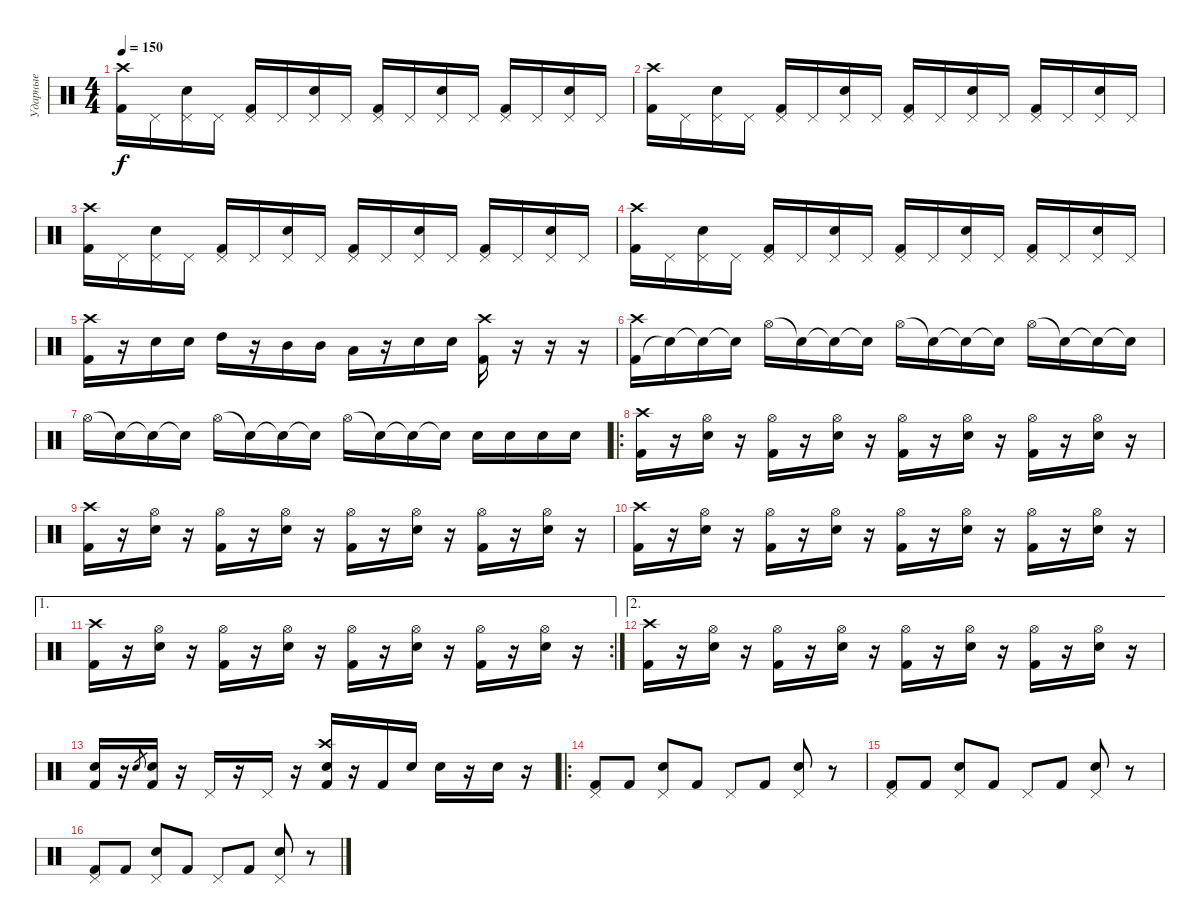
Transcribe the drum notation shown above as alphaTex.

\track ("Ударные" "Ударные") {instrument percussion}
\staff {score}
\articulation defaults
\ts (4 4)
\tempo 150
\clef neutral
\ks c
("Kick (hit) 2" "Crash high (hit)").16{dy f} "Pedal Hi-Hat (hit)".16 ("Electric Snare (hit)" "Pedal Hi-Hat (hit)").16 "Pedal Hi-Hat (hit)".16 ("Kick (hit) 2" "Pedal Hi-Hat (hit)").16 "Pedal Hi-Hat (hit)".16 ("Electric Snare (hit)" "Pedal Hi-Hat (hit)").16 "Pedal Hi-Hat (hit)".16 ("Kick (hit) 2" "Pedal Hi-Hat (hit)").16 "Pedal Hi-Hat (hit)".16 ("Electric Snare (hit)" "Pedal Hi-Hat (hit)").16 "Pedal Hi-Hat (hit)".16 ("Kick (hit) 2" "Pedal Hi-Hat (hit)").16 "Pedal Hi-Hat (hit)".16 ("Electric Snare (hit)" "Pedal Hi-Hat (hit)").16 "Pedal Hi-Hat (hit)".16 |
("Kick (hit) 2" "Crash high (hit)").16 "Pedal Hi-Hat (hit)".16 ("Electric Snare (hit)" "Pedal Hi-Hat (hit)").16 "Pedal Hi-Hat (hit)".16 ("Kick (hit) 2" "Pedal Hi-Hat (hit)").16 "Pedal Hi-Hat (hit)".16 ("Electric Snare (hit)" "Pedal Hi-Hat (hit)").16 "Pedal Hi-Hat (hit)".16 ("Kick (hit) 2" "Pedal Hi-Hat (hit)").16 "Pedal Hi-Hat (hit)".16 ("Electric Snare (hit)" "Pedal Hi-Hat (hit)").16 "Pedal Hi-Hat (hit)".16 ("Kick (hit) 2" "Pedal Hi-Hat (hit)").16 "Pedal Hi-Hat (hit)".16 ("Electric Snare (hit)" "Pedal Hi-Hat (hit)").16 "Pedal Hi-Hat (hit)".16 |
("Kick (hit) 2" "Crash high (hit)").16 "Pedal Hi-Hat (hit)".16 ("Electric Snare (hit)" "Pedal Hi-Hat (hit)").16 "Pedal Hi-Hat (hit)".16 ("Kick (hit) 2" "Pedal Hi-Hat (hit)").16 "Pedal Hi-Hat (hit)".16 ("Electric Snare (hit)" "Pedal Hi-Hat (hit)").16 "Pedal Hi-Hat (hit)".16 ("Kick (hit) 2" "Pedal Hi-Hat (hit)").16 "Pedal Hi-Hat (hit)".16 ("Electric Snare (hit)" "Pedal Hi-Hat (hit)").16 "Pedal Hi-Hat (hit)".16 ("Kick (hit) 2" "Pedal Hi-Hat (hit)").16 "Pedal Hi-Hat (hit)".16 ("Electric Snare (hit)" "Pedal Hi-Hat (hit)").16 "Pedal Hi-Hat (hit)".16 |
("Kick (hit) 2" "Crash high (hit)").16 "Pedal Hi-Hat (hit)".16 ("Electric Snare (hit)" "Pedal Hi-Hat (hit)").16 "Pedal Hi-Hat (hit)".16 ("Kick (hit) 2" "Pedal Hi-Hat (hit)").16 "Pedal Hi-Hat (hit)".16 ("Electric Snare (hit)" "Pedal Hi-Hat (hit)").16 "Pedal Hi-Hat (hit)".16 ("Kick (hit) 2" "Pedal Hi-Hat (hit)").16 "Pedal Hi-Hat (hit)".16 ("Electric Snare (hit)" "Pedal Hi-Hat (hit)").16 "Pedal Hi-Hat (hit)".16 ("Kick (hit) 2" "Pedal Hi-Hat (hit)").16 "Pedal Hi-Hat (hit)".16 ("Electric Snare (hit)" "Pedal Hi-Hat (hit)").16 "Pedal Hi-Hat (hit)".16 |
("Kick (hit) 2" "Crash high (hit)").16 r.16 "Electric Snare (hit)".16 "Electric Snare (hit)".16 "High Tom (hit)".16 r.16 "Mid Tom (hit)".16 "Mid Tom (hit)".16 "Low Tom (hit)".16 r.16 "Electric Snare (hit)".16 "Electric Snare (hit)".16 ("Kick (hit) 2" "Crash high (hit)").16 r.16 r.16 r.16 |
("Kick (hit) 2" "Crash high (hit)").16 "Snare (hit)"{t}.16 "Snare (hit)"{t}.16 "Snare (hit)"{t}.16 "Hi-Hat (open)".16 "Snare (hit)"{t}.16 "Snare (hit)"{t}.16 "Snare (hit)"{t}.16 "Hi-Hat (open)".16 "Snare (hit)"{t}.16 "Snare (hit)"{t}.16 "Snare (hit)"{t}.16 "Hi-Hat (open)".16 "Snare (hit)"{t}.16 "Snare (hit)"{t}.16 "Snare (hit)"{t}.16 |
"Hi-Hat (open)".16 "Snare (hit)"{t}.16 "Snare (hit)"{t}.16 "Snare (hit)"{t}.16 "Hi-Hat (open)".16 "Snare (hit)"{t}.16 "Snare (hit)"{t}.16 "Snare (hit)"{t}.16 "Hi-Hat (open)".16 "Snare (hit)"{t}.16 "Snare (hit)"{t}.16 "Snare (hit)"{t}.16 "Electric Snare (hit)".16 "Electric Snare (hit)".16 "Electric Snare (hit)".16 "Electric Snare (hit)".16 |
\ro
("Kick (hit) 2" "Crash high (hit)").16 r.16 ("Electric Snare (hit)" "Hi-Hat (open)").16 r.16 ("Kick (hit) 2" "Hi-Hat (open)").16 r.16 ("Electric Snare (hit)" "Hi-Hat (open)").16 r.16 ("Kick (hit) 2" "Hi-Hat (open)").16 r.16 ("Electric Snare (hit)" "Hi-Hat (open)").16 r.16 ("Kick (hit) 2" "Hi-Hat (open)").16 r.16 ("Electric Snare (hit)" "Hi-Hat (open)").16 r.16 |
("Kick (hit) 2" "Crash high (hit)").16 r.16 ("Electric Snare (hit)" "Hi-Hat (open)").16 r.16 ("Kick (hit) 2" "Hi-Hat (open)").16 r.16 ("Electric Snare (hit)" "Hi-Hat (open)").16 r.16 ("Kick (hit) 2" "Hi-Hat (open)").16 r.16 ("Electric Snare (hit)" "Hi-Hat (open)").16 r.16 ("Kick (hit) 2" "Hi-Hat (open)").16 r.16 ("Electric Snare (hit)" "Hi-Hat (open)").16 r.16 |
("Kick (hit) 2" "Crash high (hit)").16 r.16 ("Electric Snare (hit)" "Hi-Hat (open)").16 r.16 ("Kick (hit) 2" "Hi-Hat (open)").16 r.16 ("Electric Snare (hit)" "Hi-Hat (open)").16 r.16 ("Kick (hit) 2" "Hi-Hat (open)").16 r.16 ("Electric Snare (hit)" "Hi-Hat (open)").16 r.16 ("Kick (hit) 2" "Hi-Hat (open)").16 r.16 ("Electric Snare (hit)" "Hi-Hat (open)").16 r.16 |
\ae 1
\rc 2
("Kick (hit) 2" "Crash high (hit)").16 r.16 ("Electric Snare (hit)" "Hi-Hat (open)").16 r.16 ("Kick (hit) 2" "Hi-Hat (open)").16 r.16 ("Electric Snare (hit)" "Hi-Hat (open)").16 r.16 ("Kick (hit) 2" "Hi-Hat (open)").16 r.16 ("Electric Snare (hit)" "Hi-Hat (open)").16 r.16 ("Kick (hit) 2" "Hi-Hat (open)").16 r.16 ("Electric Snare (hit)" "Hi-Hat (open)").16 r.16 |
\ae 2
("Kick (hit) 2" "Crash high (hit)").16 r.16 ("Electric Snare (hit)" "Hi-Hat (open)").16 r.16 ("Kick (hit) 2" "Hi-Hat (open)").16 r.16 ("Electric Snare (hit)" "Hi-Hat (open)").16 r.16 ("Kick (hit) 2" "Hi-Hat (open)").16 r.16 ("Electric Snare (hit)" "Hi-Hat (open)").16 r.16 ("Kick (hit) 2" "Hi-Hat (open)").16 r.16 ("Electric Snare (hit)" "Hi-Hat (open)").16 r.16 |
("Electric Snare (hit)" "Kick (hit) 2").16 r.16 "Electric Snare (hit)".8{gr} ("Electric Snare (hit)" "Kick (hit) 2").16 r.16 "Pedal Hi-Hat (hit)".16 r.16 "Pedal Hi-Hat (hit)".16 r.16 ("Crash high (hit)" "Electric Snare (hit)" "Kick (hit) 2").16 r.16 "Kick (hit) 2".16 "Electric Snare (hit)".16 "Electric Snare (hit)".16 r.16 "Electric Snare (hit)".16 r.16 |
\ro
("Kick (hit) 2" "Pedal Hi-Hat (hit)").8 "Kick (hit) 2".8 ("Electric Snare (hit)" "Pedal Hi-Hat (hit)").8 "Kick (hit) 2".8 "Pedal Hi-Hat (hit)".8 "Kick (hit) 2".8 ("Electric Snare (hit)" "Pedal Hi-Hat (hit)").8 r.8 |
("Kick (hit) 2" "Pedal Hi-Hat (hit)").8 "Kick (hit) 2".8 ("Electric Snare (hit)" "Pedal Hi-Hat (hit)").8 "Kick (hit) 2".8 "Pedal Hi-Hat (hit)".8 "Kick (hit) 2".8 ("Electric Snare (hit)" "Pedal Hi-Hat (hit)").8 r.8 |
("Kick (hit) 2" "Pedal Hi-Hat (hit)").8 "Kick (hit) 2".8 ("Electric Snare (hit)" "Pedal Hi-Hat (hit)").8 "Kick (hit) 2".8 "Pedal Hi-Hat (hit)".8 "Kick (hit) 2".8 ("Electric Snare (hit)" "Pedal Hi-Hat (hit)").8 r.8
